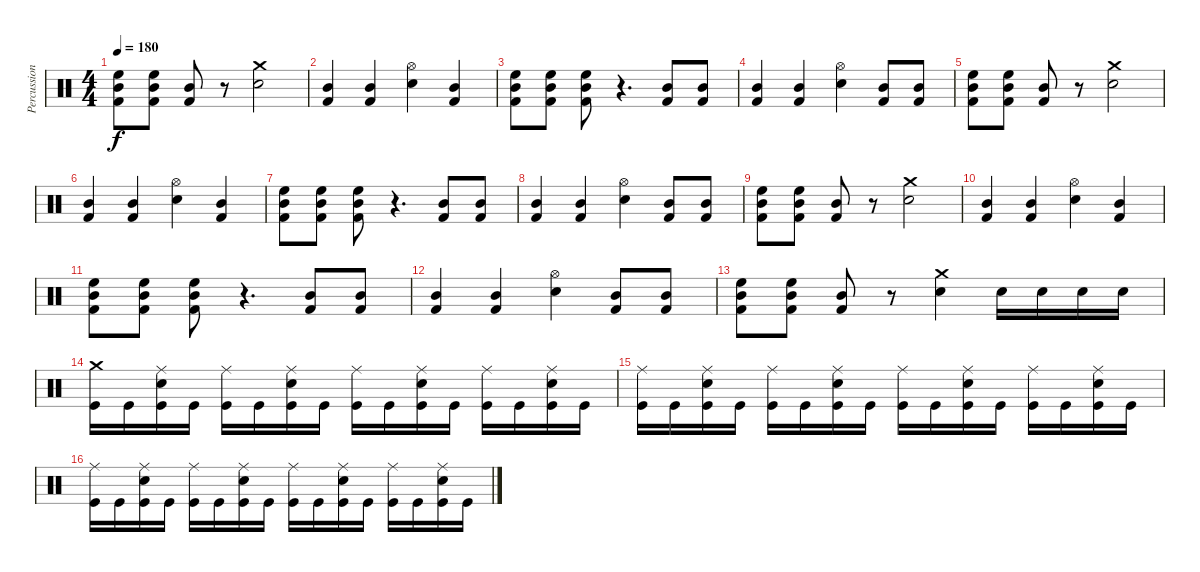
\track ("Percussions" "Percussion") {instrument percussion}
\staff {score}
\articulation defaults
\ts (4 4)
\tempo 180
\clef neutral
\ks c
("Kick (hit) 2" "Mid Tom (hit)" "High Floor Tom (hit)").8{dy f} ("Kick (hit) 2" "Mid Tom (hit)" "High Floor Tom (hit)").8 ("Kick (hit) 2" "Mid Tom (hit)").8 r.8 ("Crash medium (hit)" "Electric Snare (hit)").2 |
("Kick (hit) 2" "Mid Tom (hit)").4 ("Kick (hit) 2" "Mid Tom (hit)").4 ("Electric Snare (hit)" "Hi-Hat (open)").4 ("Kick (hit) 2" "Mid Tom (hit)").4 |
("Kick (hit) 2" "Mid Tom (hit)" "High Floor Tom (hit)").8 ("Kick (hit) 2" "Mid Tom (hit)" "High Floor Tom (hit)").8 ("Kick (hit) 2" "Mid Tom (hit)" "High Floor Tom (hit)").8 r.4{d} ("Kick (hit) 2" "Mid Tom (hit)").8 ("Kick (hit) 2" "Mid Tom (hit)").8 |
("Kick (hit) 2" "Mid Tom (hit)").4 ("Kick (hit) 2" "Mid Tom (hit)").4 ("Electric Snare (hit)" "Hi-Hat (open)").4 ("Kick (hit) 2" "Mid Tom (hit)").8 ("Kick (hit) 2" "Mid Tom (hit)").8 |
("Kick (hit) 2" "Mid Tom (hit)" "High Floor Tom (hit)").8 ("Kick (hit) 2" "Mid Tom (hit)" "High Floor Tom (hit)").8 ("Kick (hit) 2" "Mid Tom (hit)").8 r.8 ("Crash medium (hit)" "Electric Snare (hit)").2 |
("Kick (hit) 2" "Mid Tom (hit)").4 ("Kick (hit) 2" "Mid Tom (hit)").4 ("Electric Snare (hit)" "Hi-Hat (open)").4 ("Kick (hit) 2" "Mid Tom (hit)").4 |
("Kick (hit) 2" "Mid Tom (hit)" "High Floor Tom (hit)").8 ("Kick (hit) 2" "Mid Tom (hit)" "High Floor Tom (hit)").8 ("Kick (hit) 2" "Mid Tom (hit)" "High Floor Tom (hit)").8 r.4{d} ("Kick (hit) 2" "Mid Tom (hit)").8 ("Kick (hit) 2" "Mid Tom (hit)").8 |
("Kick (hit) 2" "Mid Tom (hit)").4 ("Kick (hit) 2" "Mid Tom (hit)").4 ("Electric Snare (hit)" "Hi-Hat (open)").4 ("Kick (hit) 2" "Mid Tom (hit)").8 ("Kick (hit) 2" "Mid Tom (hit)").8 |
("Kick (hit) 2" "Mid Tom (hit)" "High Floor Tom (hit)").8 ("Kick (hit) 2" "Mid Tom (hit)" "High Floor Tom (hit)").8 ("Kick (hit) 2" "Mid Tom (hit)").8 r.8 ("Crash medium (hit)" "Electric Snare (hit)").2 |
("Kick (hit) 2" "Mid Tom (hit)").4 ("Kick (hit) 2" "Mid Tom (hit)").4 ("Electric Snare (hit)" "Hi-Hat (open)").4 ("Kick (hit) 2" "Mid Tom (hit)").4 |
("Kick (hit) 2" "Mid Tom (hit)" "High Floor Tom (hit)").8 ("Kick (hit) 2" "Mid Tom (hit)" "High Floor Tom (hit)").8 ("Kick (hit) 2" "Mid Tom (hit)" "High Floor Tom (hit)").8 r.4{d} ("Kick (hit) 2" "Mid Tom (hit)").8 ("Kick (hit) 2" "Mid Tom (hit)").8 |
("Kick (hit) 2" "Mid Tom (hit)").4 ("Kick (hit) 2" "Mid Tom (hit)").4 ("Electric Snare (hit)" "Hi-Hat (open)").4 ("Kick (hit) 2" "Mid Tom (hit)").8 ("Kick (hit) 2" "Mid Tom (hit)").8 |
("Kick (hit) 2" "Mid Tom (hit)" "High Floor Tom (hit)").8 ("Kick (hit) 2" "Mid Tom (hit)" "High Floor Tom (hit)").8 ("Kick (hit) 2" "Mid Tom (hit)").8 r.8 ("Crash medium (hit)" "Electric Snare (hit)").4 "Electric Snare (hit)".16 "Electric Snare (hit)".16 "Electric Snare (hit)".16 "Electric Snare (hit)".16 |
("Kick (hit)" "Crash medium (hit)").16 "Kick (hit)".16 ("Kick (hit)" "Ride (middle)" "Snare (hit) 2").16 "Kick (hit)".16 ("Kick (hit)" "Ride (middle)").16 "Kick (hit)".16 ("Kick (hit)" "Ride (middle)" "Snare (hit) 2").16 "Kick (hit)".16 ("Kick (hit)" "Ride (middle)").16 "Kick (hit)".16 ("Kick (hit)" "Ride (middle)" "Snare (hit) 2").16 "Kick (hit)".16 ("Kick (hit)" "Ride (middle)").16 "Kick (hit)".16 ("Kick (hit)" "Ride (middle)" "Snare (hit) 2").16 "Kick (hit)".16 |
("Kick (hit)" "Ride (middle)").16 "Kick (hit)".16 ("Kick (hit)" "Ride (middle)" "Snare (hit) 2").16 "Kick (hit)".16 ("Kick (hit)" "Ride (middle)").16 "Kick (hit)".16 ("Kick (hit)" "Ride (middle)" "Snare (hit) 2").16 "Kick (hit)".16 ("Kick (hit)" "Ride (middle)").16 "Kick (hit)".16 ("Kick (hit)" "Ride (middle)" "Snare (hit) 2").16 "Kick (hit)".16 ("Kick (hit)" "Ride (middle)").16 "Kick (hit)".16 ("Kick (hit)" "Ride (middle)" "Snare (hit) 2").16 "Kick (hit)".16 |
("Kick (hit)" "Ride (middle)").16 "Kick (hit)".16 ("Kick (hit)" "Ride (middle)" "Snare (hit) 2").16 "Kick (hit)".16 ("Kick (hit)" "Ride (middle)").16 "Kick (hit)".16 ("Kick (hit)" "Ride (middle)" "Snare (hit) 2").16 "Kick (hit)".16 ("Kick (hit)" "Ride (middle)").16 "Kick (hit)".16 ("Kick (hit)" "Ride (middle)" "Snare (hit) 2").16 "Kick (hit)".16 ("Kick (hit)" "Ride (middle)").16 "Kick (hit)".16 ("Kick (hit)" "Ride (middle)" "Snare (hit) 2").16 "Kick (hit)".16
